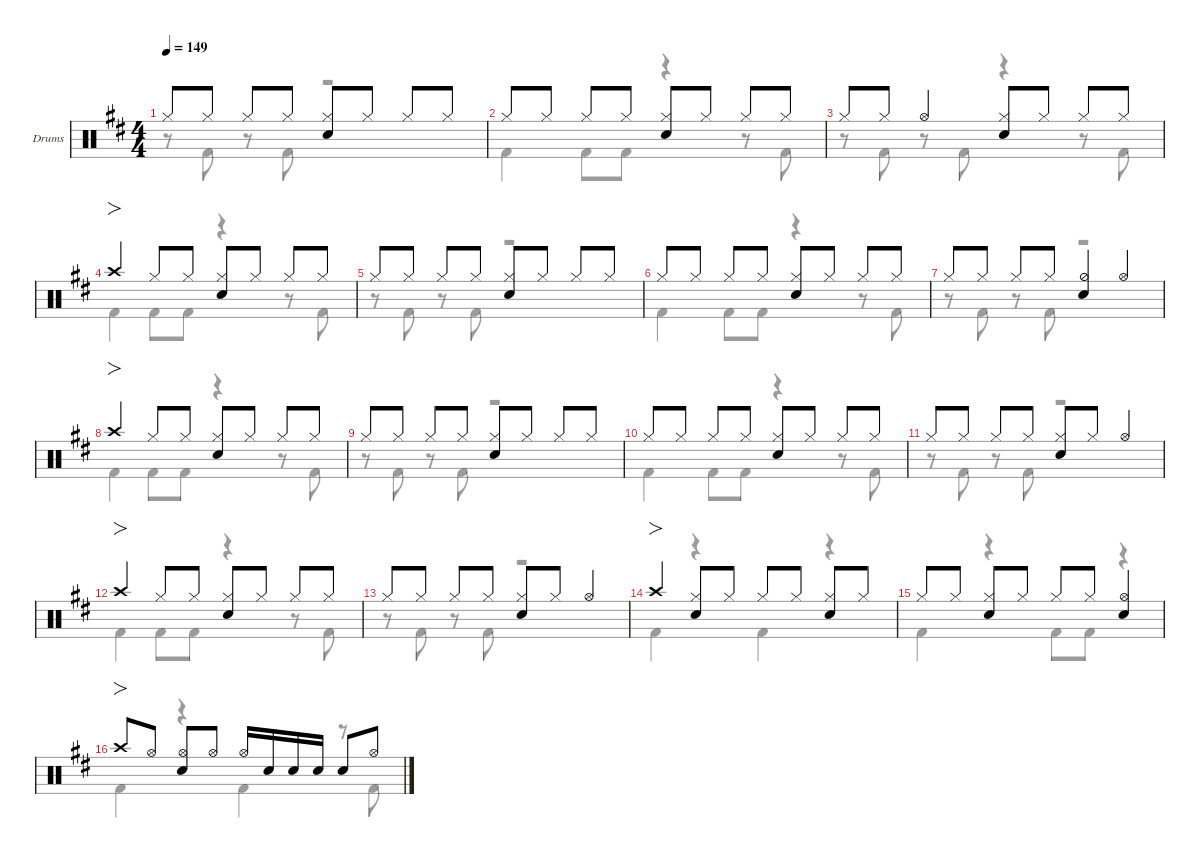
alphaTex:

\defaultSystemsLayout 4
\hideDynamics
\bracketExtendMode nobrackets
\firstSystemTrackNameOrientation horizontal
\track ("Drums" "Drums") {defaultSystemsLayout 4 instrument percussion}
\staff {score}
\articulation defaults
\voice
\ts (4 4)
\tempo 149
\clef neutral
\scale
0.244132
\ks d "Hi-Hat (closed)"{acc forcenatural}.8{dy f beam Up} "Hi-Hat (closed)"{acc forcenatural}.8{dy mp beam Up} "Hi-Hat (closed)"{acc forcenatural}.8{dy f beam Up} "Hi-Hat (closed)"{acc forcenatural}.8{dy mp beam Up}
("Hi-Hat (closed)"{acc forcenatural} "Snare (hit) 2"{acc forcenatural}).8{dy f beam Up} "Hi-Hat (closed)"{acc forcenatural}.8{dy mp beam Up} "Hi-Hat (closed)"{acc forcenatural}.8{dy f beam Up} "Hi-Hat (closed)"{acc forcenatural}.8{dy mp beam Up} |
\scale
0.244132 "Hi-Hat (closed)"{acc forcenatural}.8{dy f beam Up} "Hi-Hat (closed)"{acc forcenatural}.8{dy mp beam Up} "Hi-Hat (closed)"{acc forcenatural}.8{dy f beam Up} "Hi-Hat (closed)"{acc forcenatural}.8{dy mp beam Up} ("Hi-Hat (closed)"{acc forcenatural} "Snare (hit) 2"{acc forcenatural}).8{dy f beam Up} "Hi-Hat (closed)"{acc forcenatural}.8{dy mp beam Up} "Hi-Hat (closed)"{acc forcenatural}.8{dy f beam Up} "Hi-Hat (closed)"{acc forcenatural}.8{dy mp beam Up} |
\scale
0.244132 "Hi-Hat (closed)"{acc forcenatural}.8{dy f beam Up} "Hi-Hat (closed)"{acc forcenatural}.8{dy mp beam Up} "Hi-Hat (open)"{acc forcenatural}.4{dy f beam Up} ("Hi-Hat (closed)"{acc forcenatural} "Snare (hit) 2"{acc forcenatural}).8{beam Up} "Hi-Hat (closed)"{acc forcenatural}.8{dy mp beam Up} "Hi-Hat (closed)"{acc forcenatural}.8{dy f beam Up} "Hi-Hat (closed)"{acc forcenatural}.8{dy mp beam Up} |
\scale
0.267605 "Crash high (hit)"{acc forcenatural}.4{fo dy f beam Up} "Hi-Hat (closed)"{acc forcenatural}.8{beam Up} "Hi-Hat (closed)"{acc forcenatural}.8{dy mp beam Up} ("Hi-Hat (closed)"{acc forcenatural} "Snare (hit) 2"{acc forcenatural}).8{dy f beam Up} "Hi-Hat (closed)"{acc forcenatural}.8{dy mp beam Up} "Hi-Hat (closed)"{acc forcenatural}.8{dy f beam Up} "Hi-Hat (closed)"{acc forcenatural}.8{dy mp beam Up} |
\scale
0.244132 "Hi-Hat (closed)"{acc forcenatural}.8{dy f beam Up} "Hi-Hat (closed)"{acc forcenatural}.8{dy mp beam Up} "Hi-Hat (closed)"{acc forcenatural}.8{dy f beam Up} "Hi-Hat (closed)"{acc forcenatural}.8{dy mp beam Up} ("Hi-Hat (closed)"{acc forcenatural} "Snare (hit) 2"{acc forcenatural}).8{dy f beam Up} "Hi-Hat (closed)"{acc forcenatural}.8{dy mp beam Up} "Hi-Hat (closed)"{acc forcenatural}.8{dy f beam Up} "Hi-Hat (closed)"{acc forcenatural}.8{dy mp beam Up} |
\scale
0.244132 "Hi-Hat (closed)"{acc forcenatural}.8{dy f beam Up} "Hi-Hat (closed)"{acc forcenatural}.8{dy mp beam Up} "Hi-Hat (closed)"{acc forcenatural}.8{dy f beam Up} "Hi-Hat (closed)"{acc forcenatural}.8{dy mp beam Up} ("Hi-Hat (closed)"{acc forcenatural} "Snare (hit) 2"{acc forcenatural}).8{dy f beam Up} "Hi-Hat (closed)"{acc forcenatural}.8{dy mp beam Up} "Hi-Hat (closed)"{acc forcenatural}.8{dy f beam Up} "Hi-Hat (closed)"{acc forcenatural}.8{dy mp beam Up} |
\scale
0.244132 "Hi-Hat (closed)"{acc forcenatural}.8{dy f beam Up} "Hi-Hat (closed)"{acc forcenatural}.8{dy mp beam Up} "Hi-Hat (closed)"{acc forcenatural}.8{dy f beam Up} "Hi-Hat (closed)"{acc forcenatural}.8{dy mp beam Up} ("Hi-Hat (half)"{acc forcenatural} "Snare (hit) 2"{acc forcenatural}).4{dy f beam Up} "Hi-Hat (open)"{acc forcenatural}.4{beam Up} |
\scale
0.267605 "Crash high (hit)"{acc forcenatural}.4{fo beam Up} "Hi-Hat (closed)"{acc forcenatural}.8{beam Up} "Hi-Hat (closed)"{acc forcenatural}.8{dy mp beam Up} ("Hi-Hat (closed)"{acc forcenatural} "Snare (hit) 2"{acc forcenatural}).8{dy f beam Up} "Hi-Hat (closed)"{acc forcenatural}.8{dy mp beam Up} "Hi-Hat (closed)"{acc forcenatural}.8{dy f beam Up} "Hi-Hat (closed)"{acc forcenatural}.8{dy mp beam Up} |
\scale
0.244132 "Hi-Hat (closed)"{acc forcenatural}.8{dy f beam Up} "Hi-Hat (closed)"{acc forcenatural}.8{dy mp beam Up} "Hi-Hat (closed)"{acc forcenatural}.8{dy f beam Up} "Hi-Hat (closed)"{acc forcenatural}.8{dy mp beam Up} ("Hi-Hat (closed)"{acc forcenatural} "Snare (hit) 2"{acc forcenatural}).8{dy f beam Up} "Hi-Hat (closed)"{acc forcenatural}.8{dy mp beam Up} "Hi-Hat (closed)"{acc forcenatural}.8{dy f beam Up} "Hi-Hat (closed)"{acc forcenatural}.8{dy mp beam Up} |
\scale
0.244132 "Hi-Hat (closed)"{acc forcenatural}.8{dy f beam Up} "Hi-Hat (closed)"{acc forcenatural}.8{dy mp beam Up} "Hi-Hat (closed)"{acc forcenatural}.8{dy f beam Up} "Hi-Hat (closed)"{acc forcenatural}.8{dy mp beam Up} ("Hi-Hat (closed)"{acc forcenatural} "Snare (hit) 2"{acc forcenatural}).8{dy f beam Up} "Hi-Hat (closed)"{acc forcenatural}.8{dy mp beam Up} "Hi-Hat (closed)"{acc forcenatural}.8{dy f beam Up} "Hi-Hat (closed)"{acc forcenatural}.8{dy mp beam Up} |
\scale
0.244132 "Hi-Hat (closed)"{acc forcenatural}.8{dy f beam Up} "Hi-Hat (closed)"{acc forcenatural}.8{dy mp beam Up} "Hi-Hat (closed)"{acc forcenatural}.8{dy f beam Up} "Hi-Hat (closed)"{acc forcenatural}.8{dy mp beam Up} ("Hi-Hat (closed)"{acc forcenatural} "Snare (hit) 2"{acc forcenatural}).8{dy f beam Up} "Hi-Hat (closed)"{acc forcenatural}.8{dy mp beam Up} "Hi-Hat (open)"{acc forcenatural}.4{dy f beam Up} |
\scale
0.267605 "Crash high (hit)"{acc forcenatural}.4{fo beam Up} "Hi-Hat (closed)"{acc forcenatural}.8{beam Up} "Hi-Hat (closed)"{acc forcenatural}.8{dy mp beam Up} ("Hi-Hat (closed)"{acc forcenatural} "Snare (hit) 2"{acc forcenatural}).8{dy f beam Up} "Hi-Hat (closed)"{acc forcenatural}.8{dy mp beam Up} "Hi-Hat (closed)"{acc forcenatural}.8{dy f beam Up} "Hi-Hat (closed)"{acc forcenatural}.8{dy mp beam Up} |
\scale
0.244132 "Hi-Hat (closed)"{acc forcenatural}.8{dy f beam Up} "Hi-Hat (closed)"{acc forcenatural}.8{dy mp beam Up} "Hi-Hat (closed)"{acc forcenatural}.8{dy f beam Up} "Hi-Hat (closed)"{acc forcenatural}.8{dy mp beam Up} ("Hi-Hat (closed)"{acc forcenatural} "Snare (hit) 2"{acc forcenatural}).8{dy f beam Up} "Hi-Hat (closed)"{acc forcenatural}.8{dy mp beam Up} "Hi-Hat (open)"{acc forcenatural}.4{dy f beam Up} |
\scale
0.244132 "Crash high (hit)"{acc forcenatural}.4{fo beam Up} ("Hi-Hat (closed)"{acc forcenatural} "Snare (hit) 2"{acc forcenatural}).8{beam Up} "Hi-Hat (closed)"{acc forcenatural}.8{dy mp beam Up} "Hi-Hat (closed)"{acc forcenatural}.8{dy f beam Up} "Hi-Hat (closed)"{acc forcenatural}.8{dy mp beam Up} ("Hi-Hat (closed)"{acc forcenatural} "Snare (hit) 2"{acc forcenatural}).8{dy f beam Up} "Hi-Hat (closed)"{acc forcenatural}.8{dy mp beam Up} |
\scale
0.244132 "Hi-Hat (closed)"{acc forcenatural}.8{dy f beam Up} "Hi-Hat (closed)"{acc forcenatural}.8{dy mp beam Up} ("Hi-Hat (closed)"{acc forcenatural} "Snare (hit) 2"{acc forcenatural}).8{dy f beam Up} "Hi-Hat (closed)"{acc forcenatural}.8{dy mp beam Up} "Hi-Hat (closed)"{acc forcenatural}.8{dy f beam Up} "Hi-Hat (closed)"{acc forcenatural}.8{dy mp beam Up} ("Hi-Hat (open)"{acc forcenatural} "Snare (hit) 2"{acc forcenatural}).4{dy f beam Up} |
\scale
0.511737 "Crash high (hit)"{acc forcenatural}.8{fo beam Up} "Hi-Hat (open)"{acc forcenatural}.8{dy mf beam Up} ("Hi-Hat (open)"{acc forcenatural} "Snare (hit) 2"{acc forcenatural}).8{dy f beam Up} "Hi-Hat (open)"{acc forcenatural}.8{dy mf beam Up} "Hi-Hat (open)"{acc forcenatural}.16{dy f beam Up} "Snare (hit) 2"{acc forcenatural}.16{dy mf beam Up} "Snare (hit) 2"{acc forcenatural}.16{dy f beam Up} "Snare (hit) 2"{acc forcenatural}.16{dy mf beam Up beam split} "Snare (hit) 2"{acc forcenatural}.8{dy f beam Up} "Hi-Hat (open)"{acc forcenatural}.8{beam Up}
\voice
\clef neutral
\ottava regular
\simile none
\scale
0.244132
\ks d
r.8{dy f beam Down} "Kick (hit) 2"{acc forcenatural}.8{beam Down} r.8{beam Down} "Kick (hit) 2"{acc forcenatural}.8{beam Down} r.2{beam Down} |
\scale
0.244132 "Kick (hit) 2"{acc forcenatural}.4{beam Down} "Kick (hit) 2"{acc forcenatural}.8{beam Down} "Kick (hit) 2"{acc forcenatural}.8{beam Down} r.4{beam Down} r.8{beam Down} "Kick (hit) 2"{acc forcenatural}.8{beam Down} |
\scale
0.244132 r.8{beam Down} "Kick (hit) 2"{acc forcenatural}.8{beam Down} r.8{beam Down} "Kick (hit) 2"{acc forcenatural}.8{beam Down} r.4{beam Down} r.8{beam Down} "Kick (hit) 2"{acc forcenatural}.8{beam Down} |
\scale
0.267605 "Kick (hit) 2"{acc forcenatural}.4{beam Down} "Kick (hit) 2"{acc forcenatural}.8{beam Down} "Kick (hit) 2"{acc forcenatural}.8{beam Down} r.4{beam Down} r.8{beam Down} "Kick (hit) 2"{acc forcenatural}.8{beam Down} |
\scale
0.244132 r.8{beam Down} "Kick (hit) 2"{acc forcenatural}.8{beam Down} r.8{beam Down} "Kick (hit) 2"{acc forcenatural}.8{beam Down} r.2{beam Down} |
\scale
0.244132 "Kick (hit) 2"{acc forcenatural}.4{beam Down} "Kick (hit) 2"{acc forcenatural}.8{beam Down} "Kick (hit) 2"{acc forcenatural}.8{beam Down} r.4{beam Down} r.8{beam Down} "Kick (hit) 2"{acc forcenatural}.8{beam Down} |
\scale
0.244132 r.8{beam Down} "Kick (hit) 2"{acc forcenatural}.8{beam Down} r.8{beam Down} "Kick (hit) 2"{acc forcenatural}.8{beam Down} r.2{beam Down} |
\scale
0.267605 "Kick (hit) 2"{acc forcenatural}.4{beam Down} "Kick (hit) 2"{acc forcenatural}.8{beam Down} "Kick (hit) 2"{acc forcenatural}.8{beam Down} r.4{beam Down} r.8{beam Down} "Kick (hit) 2"{acc forcenatural}.8{beam Down} |
\scale
0.244132 r.8{beam Down} "Kick (hit) 2"{acc forcenatural}.8{beam Down} r.8{beam Down} "Kick (hit) 2"{acc forcenatural}.8{beam Down} r.2{beam Down} |
\scale
0.244132 "Kick (hit) 2"{acc forcenatural}.4{beam Down} "Kick (hit) 2"{acc forcenatural}.8{beam Down} "Kick (hit) 2"{acc forcenatural}.8{beam Down} r.4{beam Down} r.8{beam Down} "Kick (hit) 2"{acc forcenatural}.8{beam Down} |
\scale
0.244132 r.8{beam Down} "Kick (hit) 2"{acc forcenatural}.8{beam Down} r.8{beam Down} "Kick (hit) 2"{acc forcenatural}.8{beam Down} r.2{beam Down} |
\scale
0.267605 "Kick (hit) 2"{acc forcenatural}.4{beam Down} "Kick (hit) 2"{acc forcenatural}.8{beam Down} "Kick (hit) 2"{acc forcenatural}.8{beam Down} r.4{beam Down} r.8{beam Down} "Kick (hit) 2"{acc forcenatural}.8{beam Down} |
\scale
0.244132 r.8{beam Down} "Kick (hit) 2"{acc forcenatural}.8{beam Down} r.8{beam Down} "Kick (hit) 2"{acc forcenatural}.8{beam Down} r.2{beam Down} |
\scale
0.244132 "Kick (hit) 2"{acc forcenatural}.4{beam Down} r.4{beam Down} "Kick (hit) 2"{acc forcenatural}.4{beam Down} r.4{beam Down} |
\scale
0.244132 "Kick (hit) 2"{acc forcenatural}.4{beam Down} r.4{beam Down} "Kick (hit) 2"{acc forcenatural}.8{beam Down} "Kick (hit) 2"{acc forcenatural}.8{beam Down} r.4{beam Down} |
\scale
0.511737 "Kick (hit) 2"{acc forcenatural}.4{beam Down} r.4{beam Down} "Kick (hit) 2"{acc forcenatural}.4{beam Down} r.8{beam Down} "Kick (hit) 2"{acc forcenatural}.8{beam Down}
